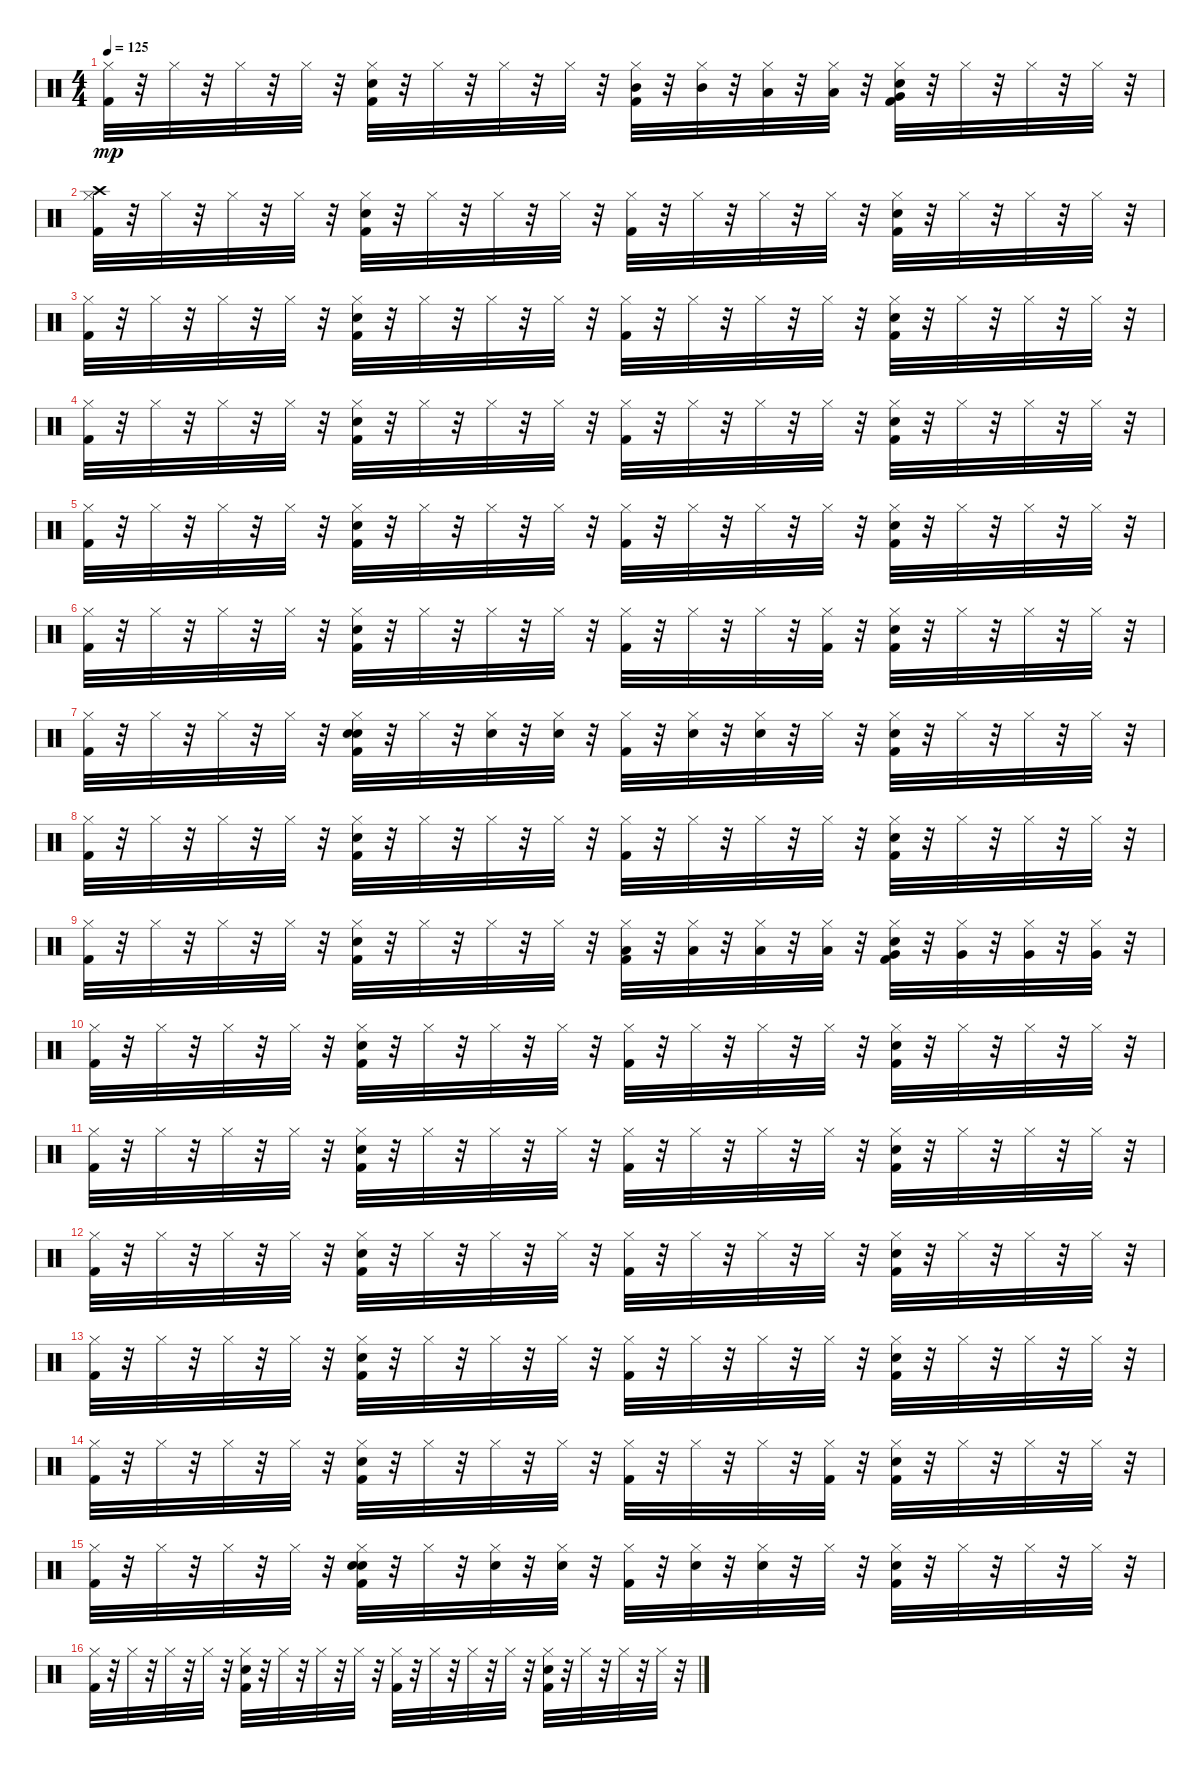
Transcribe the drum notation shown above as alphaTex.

\track "" {instrument percussion}
\staff {score}
\articulation defaults
\ts (4 4)
\tempo 125
\clef neutral
\ks c
("Kick (hit) 2" "Hi-Hat (closed)").32{dy mp} r.32 "Hi-Hat (closed)".32 r.32 "Hi-Hat (closed)".32 r.32 "Hi-Hat (closed)".32 r.32 ("Kick (hit) 2" "Snare (hit) 2" "Hi-Hat (closed)").32 r.32 "Hi-Hat (closed)".32 r.32 "Hi-Hat (closed)".32 r.32 "Hi-Hat (closed)".32 r.32 ("Mid Tom (hit)" "Kick (hit) 2" "Hi-Hat (closed)").32 r.32 ("Mid Tom (hit)" "Hi-Hat (closed)").32 r.32 ("Low Tom (hit)" "Hi-Hat (closed)").32 r.32 ("Low Tom (hit)" "Hi-Hat (closed)").32 r.32 ("Very Low Tom (hit)" "Kick (hit) 2" "Snare (hit) 2" "Hi-Hat (closed)").32 r.32 "Hi-Hat (closed)".32 r.32 "Hi-Hat (closed)".32 r.32 "Hi-Hat (closed)".32 r.32 |
("Crash high (hit)" "Kick (hit) 2" "Hi-Hat (closed)").32 r.32 "Hi-Hat (closed)".32 r.32 "Hi-Hat (closed)".32 r.32 "Hi-Hat (closed)".32 r.32 ("Kick (hit) 2" "Snare (hit) 2" "Hi-Hat (closed)").32 r.32 "Hi-Hat (closed)".32 r.32 "Hi-Hat (closed)".32 r.32 "Hi-Hat (closed)".32 r.32 ("Kick (hit) 2" "Hi-Hat (closed)").32 r.32 "Hi-Hat (closed)".32 r.32 "Hi-Hat (closed)".32 r.32 "Hi-Hat (closed)".32 r.32 ("Kick (hit) 2" "Snare (hit) 2" "Hi-Hat (closed)").32 r.32 "Hi-Hat (closed)".32 r.32 "Hi-Hat (closed)".32 r.32 "Hi-Hat (closed)".32 r.32 |
("Kick (hit) 2" "Hi-Hat (closed)").32 r.32 "Hi-Hat (closed)".32 r.32 "Hi-Hat (closed)".32 r.32 "Hi-Hat (closed)".32 r.32 ("Kick (hit) 2" "Snare (hit) 2" "Hi-Hat (closed)").32 r.32 "Hi-Hat (closed)".32 r.32 "Hi-Hat (closed)".32 r.32 "Hi-Hat (closed)".32 r.32 ("Kick (hit) 2" "Hi-Hat (closed)").32 r.32 "Hi-Hat (closed)".32 r.32 "Hi-Hat (closed)".32 r.32 "Hi-Hat (closed)".32 r.32 ("Kick (hit) 2" "Snare (hit) 2" "Hi-Hat (closed)").32 r.32 "Hi-Hat (closed)".32 r.32 "Hi-Hat (closed)".32 r.32 "Hi-Hat (closed)".32 r.32 |
("Kick (hit) 2" "Hi-Hat (closed)").32 r.32 "Hi-Hat (closed)".32 r.32 "Hi-Hat (closed)".32 r.32 "Hi-Hat (closed)".32 r.32 ("Kick (hit) 2" "Snare (hit) 2" "Hi-Hat (closed)").32 r.32 "Hi-Hat (closed)".32 r.32 "Hi-Hat (closed)".32 r.32 "Hi-Hat (closed)".32 r.32 ("Kick (hit) 2" "Hi-Hat (closed)").32 r.32 "Hi-Hat (closed)".32 r.32 "Hi-Hat (closed)".32 r.32 "Hi-Hat (closed)".32 r.32 ("Kick (hit) 2" "Snare (hit) 2" "Hi-Hat (closed)").32 r.32 "Hi-Hat (closed)".32 r.32 "Hi-Hat (closed)".32 r.32 "Hi-Hat (closed)".32 r.32 |
("Kick (hit) 2" "Hi-Hat (closed)").32 r.32 "Hi-Hat (closed)".32 r.32 "Hi-Hat (closed)".32 r.32 "Hi-Hat (closed)".32 r.32 ("Kick (hit) 2" "Snare (hit) 2" "Hi-Hat (closed)").32 r.32 "Hi-Hat (closed)".32 r.32 "Hi-Hat (closed)".32 r.32 "Hi-Hat (closed)".32 r.32 ("Kick (hit) 2" "Hi-Hat (closed)").32 r.32 "Hi-Hat (closed)".32 r.32 "Hi-Hat (closed)".32 r.32 "Hi-Hat (closed)".32 r.32 ("Kick (hit) 2" "Snare (hit) 2" "Hi-Hat (closed)").32 r.32 "Hi-Hat (closed)".32 r.32 "Hi-Hat (closed)".32 r.32 "Hi-Hat (closed)".32 r.32 |
("Kick (hit) 2" "Hi-Hat (closed)").32 r.32 "Hi-Hat (closed)".32 r.32 "Hi-Hat (closed)".32 r.32 "Hi-Hat (closed)".32 r.32 ("Kick (hit) 2" "Snare (hit) 2" "Hi-Hat (closed)").32 r.32 "Hi-Hat (closed)".32 r.32 "Hi-Hat (closed)".32 r.32 "Hi-Hat (closed)".32 r.32 ("Kick (hit) 2" "Hi-Hat (closed)").32 r.32 "Hi-Hat (closed)".32 r.32 "Hi-Hat (closed)".32 r.32 ("Kick (hit) 2" "Hi-Hat (closed)").32 r.32 ("Kick (hit) 2" "Snare (hit) 2" "Hi-Hat (closed)").32 r.32 "Hi-Hat (closed)".32 r.32 "Hi-Hat (closed)".32 r.32 "Hi-Hat (closed)".32 r.32 |
("Kick (hit) 2" "Hi-Hat (closed)").32 r.32 "Hi-Hat (closed)".32 r.32 "Hi-Hat (closed)".32 r.32 "Hi-Hat (closed)".32 r.32 ("Hand Clap (hit)" "Kick (hit) 2" "Snare (hit) 2" "Hi-Hat (closed)").32 r.32 "Hi-Hat (closed)".32 r.32 ("Hand Clap (hit)" "Hi-Hat (closed)").32 r.32 ("Hand Clap (hit)" "Hi-Hat (closed)").32 r.32 ("Kick (hit) 2" "Hi-Hat (closed)").32 r.32 ("Hand Clap (hit)" "Hi-Hat (closed)").32 r.32 ("Hand Clap (hit)" "Hi-Hat (closed)").32 r.32 "Hi-Hat (closed)".32 r.32 ("Kick (hit) 2" "Snare (hit) 2" "Hi-Hat (closed)").32 r.32 "Hi-Hat (closed)".32 r.32 "Hi-Hat (closed)".32 r.32 "Hi-Hat (closed)".32 r.32 |
("Kick (hit) 2" "Hi-Hat (closed)").32 r.32 "Hi-Hat (closed)".32 r.32 "Hi-Hat (closed)".32 r.32 "Hi-Hat (closed)".32 r.32 ("Kick (hit) 2" "Snare (hit) 2" "Hi-Hat (closed)").32 r.32 "Hi-Hat (closed)".32 r.32 "Hi-Hat (closed)".32 r.32 "Hi-Hat (closed)".32 r.32 ("Kick (hit) 2" "Hi-Hat (closed)").32 r.32 "Hi-Hat (closed)".32 r.32 "Hi-Hat (closed)".32 r.32 "Hi-Hat (closed)".32 r.32 ("Kick (hit) 2" "Snare (hit) 2" "Hi-Hat (closed)").32 r.32 "Hi-Hat (closed)".32 r.32 "Hi-Hat (closed)".32 r.32 "Hi-Hat (closed)".32 r.32 |
("Kick (hit) 2" "Hi-Hat (closed)").32 r.32 "Hi-Hat (closed)".32 r.32 "Hi-Hat (closed)".32 r.32 "Hi-Hat (closed)".32 r.32 ("Kick (hit) 2" "Snare (hit) 2" "Hi-Hat (closed)").32 r.32 "Hi-Hat (closed)".32 r.32 "Hi-Hat (closed)".32 r.32 "Hi-Hat (closed)".32 r.32 ("Low Tom (hit)" "Kick (hit) 2" "Hi-Hat (closed)").32 r.32 ("Low Tom (hit)" "Hi-Hat (closed)").32 r.32 ("Low Tom (hit)" "Hi-Hat (closed)").32 r.32 ("Low Tom (hit)" "Hi-Hat (closed)").32 r.32 ("Very Low Tom (hit)" "Kick (hit) 2" "Snare (hit) 2" "Hi-Hat (closed)").32 r.32 ("Very Low Tom (hit)" "Hi-Hat (closed)").32 r.32 ("Very Low Tom (hit)" "Hi-Hat (closed)").32 r.32 ("Very Low Tom (hit)" "Hi-Hat (closed)").32 r.32 |
("Kick (hit) 2" "Hi-Hat (closed)").32 r.32 "Hi-Hat (closed)".32 r.32 "Hi-Hat (closed)".32 r.32 "Hi-Hat (closed)".32 r.32 ("Kick (hit) 2" "Snare (hit) 2" "Hi-Hat (closed)").32 r.32 "Hi-Hat (closed)".32 r.32 "Hi-Hat (closed)".32 r.32 "Hi-Hat (closed)".32 r.32 ("Kick (hit) 2" "Hi-Hat (closed)").32 r.32 "Hi-Hat (closed)".32 r.32 "Hi-Hat (closed)".32 r.32 "Hi-Hat (closed)".32 r.32 ("Kick (hit) 2" "Snare (hit) 2" "Hi-Hat (closed)").32 r.32 "Hi-Hat (closed)".32 r.32 "Hi-Hat (closed)".32 r.32 "Hi-Hat (closed)".32 r.32 |
("Kick (hit) 2" "Hi-Hat (closed)").32 r.32 "Hi-Hat (closed)".32 r.32 "Hi-Hat (closed)".32 r.32 "Hi-Hat (closed)".32 r.32 ("Kick (hit) 2" "Snare (hit) 2" "Hi-Hat (closed)").32 r.32 "Hi-Hat (closed)".32 r.32 "Hi-Hat (closed)".32 r.32 "Hi-Hat (closed)".32 r.32 ("Kick (hit) 2" "Hi-Hat (closed)").32 r.32 "Hi-Hat (closed)".32 r.32 "Hi-Hat (closed)".32 r.32 "Hi-Hat (closed)".32 r.32 ("Kick (hit) 2" "Snare (hit) 2" "Hi-Hat (closed)").32 r.32 "Hi-Hat (closed)".32 r.32 "Hi-Hat (closed)".32 r.32 "Hi-Hat (closed)".32 r.32 |
("Kick (hit) 2" "Hi-Hat (closed)").32 r.32 "Hi-Hat (closed)".32 r.32 "Hi-Hat (closed)".32 r.32 "Hi-Hat (closed)".32 r.32 ("Kick (hit) 2" "Snare (hit) 2" "Hi-Hat (closed)").32 r.32 "Hi-Hat (closed)".32 r.32 "Hi-Hat (closed)".32 r.32 "Hi-Hat (closed)".32 r.32 ("Kick (hit) 2" "Hi-Hat (closed)").32 r.32 "Hi-Hat (closed)".32 r.32 "Hi-Hat (closed)".32 r.32 "Hi-Hat (closed)".32 r.32 ("Kick (hit) 2" "Snare (hit) 2" "Hi-Hat (closed)").32 r.32 "Hi-Hat (closed)".32 r.32 "Hi-Hat (closed)".32 r.32 "Hi-Hat (closed)".32 r.32 |
("Kick (hit) 2" "Hi-Hat (closed)").32 r.32 "Hi-Hat (closed)".32 r.32 "Hi-Hat (closed)".32 r.32 "Hi-Hat (closed)".32 r.32 ("Kick (hit) 2" "Snare (hit) 2" "Hi-Hat (closed)").32 r.32 "Hi-Hat (closed)".32 r.32 "Hi-Hat (closed)".32 r.32 "Hi-Hat (closed)".32 r.32 ("Kick (hit) 2" "Hi-Hat (closed)").32 r.32 "Hi-Hat (closed)".32 r.32 "Hi-Hat (closed)".32 r.32 "Hi-Hat (closed)".32 r.32 ("Kick (hit) 2" "Snare (hit) 2" "Hi-Hat (closed)").32 r.32 "Hi-Hat (closed)".32 r.32 "Hi-Hat (closed)".32 r.32 "Hi-Hat (closed)".32 r.32 |
("Kick (hit) 2" "Hi-Hat (closed)").32 r.32 "Hi-Hat (closed)".32 r.32 "Hi-Hat (closed)".32 r.32 "Hi-Hat (closed)".32 r.32 ("Kick (hit) 2" "Snare (hit) 2" "Hi-Hat (closed)").32 r.32 "Hi-Hat (closed)".32 r.32 "Hi-Hat (closed)".32 r.32 "Hi-Hat (closed)".32 r.32 ("Kick (hit) 2" "Hi-Hat (closed)").32 r.32 "Hi-Hat (closed)".32 r.32 "Hi-Hat (closed)".32 r.32 ("Kick (hit) 2" "Hi-Hat (closed)").32 r.32 ("Kick (hit) 2" "Snare (hit) 2" "Hi-Hat (closed)").32 r.32 "Hi-Hat (closed)".32 r.32 "Hi-Hat (closed)".32 r.32 "Hi-Hat (closed)".32 r.32 |
("Kick (hit) 2" "Hi-Hat (closed)").32 r.32 "Hi-Hat (closed)".32 r.32 "Hi-Hat (closed)".32 r.32 "Hi-Hat (closed)".32 r.32 ("Hand Clap (hit)" "Kick (hit) 2" "Snare (hit) 2" "Hi-Hat (closed)").32 r.32 "Hi-Hat (closed)".32 r.32 ("Hand Clap (hit)" "Hi-Hat (closed)").32 r.32 ("Hand Clap (hit)" "Hi-Hat (closed)").32 r.32 ("Kick (hit) 2" "Hi-Hat (closed)").32 r.32 ("Hand Clap (hit)" "Hi-Hat (closed)").32 r.32 ("Hand Clap (hit)" "Hi-Hat (closed)").32 r.32 "Hi-Hat (closed)".32 r.32 ("Kick (hit) 2" "Snare (hit) 2" "Hi-Hat (closed)").32 r.32 "Hi-Hat (closed)".32 r.32 "Hi-Hat (closed)".32 r.32 "Hi-Hat (closed)".32 r.32 |
("Kick (hit) 2" "Hi-Hat (closed)").32 r.32 "Hi-Hat (closed)".32 r.32 "Hi-Hat (closed)".32 r.32 "Hi-Hat (closed)".32 r.32 ("Kick (hit) 2" "Snare (hit) 2" "Hi-Hat (closed)").32 r.32 "Hi-Hat (closed)".32 r.32 "Hi-Hat (closed)".32 r.32 "Hi-Hat (closed)".32 r.32 ("Kick (hit) 2" "Hi-Hat (closed)").32 r.32 "Hi-Hat (closed)".32 r.32 "Hi-Hat (closed)".32 r.32 "Hi-Hat (closed)".32 r.32 ("Kick (hit) 2" "Snare (hit) 2" "Hi-Hat (closed)").32 r.32 "Hi-Hat (closed)".32 r.32 "Hi-Hat (closed)".32 r.32 "Hi-Hat (closed)".32 r.32
